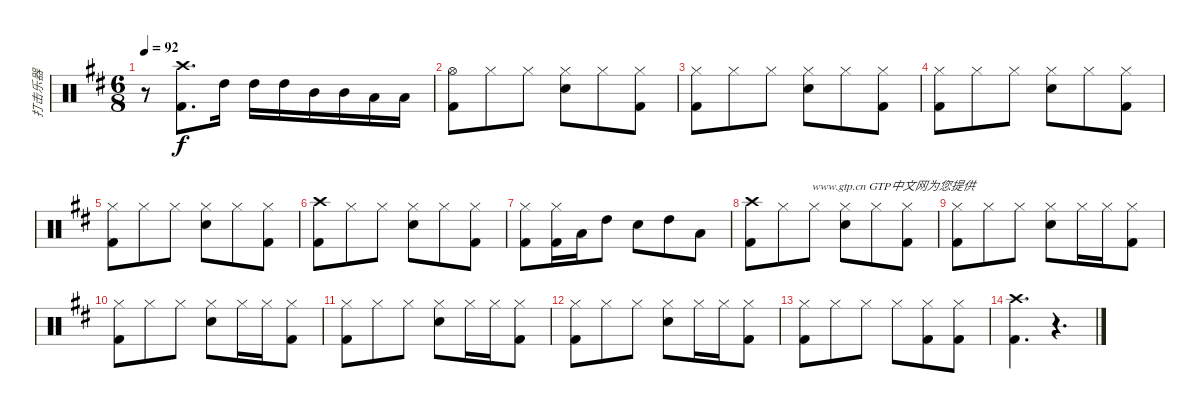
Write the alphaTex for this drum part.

\track ("打击乐器" "打击乐器") {instrument percussion}
\staff {score}
\articulation defaults
\ts (6 8)
\tempo 92
\clef neutral
\ks d
r.8{dy f} ("Crash high (hit)" "Kick (hit) 2").8{d} "High Tom (hit)".16 "High Tom (hit)".16 "High Tom (hit)".16 "Mid Tom (hit)".16 "Mid Tom (hit)".16 "Low Tom (hit)".16 "Low Tom (hit)".16 |
("Hi-Hat (open)" "Kick (hit) 2").8 "Hi-Hat (closed)".8 "Hi-Hat (closed)".8 ("Hi-Hat (closed)" "Snare (hit) 2").8 "Hi-Hat (closed)".8 ("Hi-Hat (closed)" "Kick (hit) 2").8 |
("Hi-Hat (closed)" "Kick (hit) 2").8 "Hi-Hat (closed)".8 "Hi-Hat (closed)".8 ("Hi-Hat (closed)" "Snare (hit) 2").8 "Hi-Hat (closed)".8 ("Hi-Hat (closed)" "Kick (hit) 2").8 |
("Hi-Hat (closed)" "Kick (hit) 2").8 "Hi-Hat (closed)".8 "Hi-Hat (closed)".8 ("Hi-Hat (closed)" "Snare (hit) 2").8 "Hi-Hat (closed)".8 ("Hi-Hat (closed)" "Kick (hit) 2").8 |
("Hi-Hat (closed)" "Kick (hit) 2").8 "Hi-Hat (closed)".8 "Hi-Hat (closed)".8 ("Hi-Hat (closed)" "Snare (hit) 2").8 "Hi-Hat (closed)".8 ("Hi-Hat (closed)" "Kick (hit) 2").8 |
("Crash high (hit)" "Kick (hit) 2").8 "Hi-Hat (closed)".8 "Hi-Hat (closed)".8 ("Hi-Hat (closed)" "Snare (hit) 2").8 "Hi-Hat (closed)".8 ("Hi-Hat (closed)" "Kick (hit) 2").8 |
("Hi-Hat (closed)" "Kick (hit) 2").8 ("Hi-Hat (closed)" "Kick (hit) 2").16 "Low Tom (hit)".16 "High Tom (hit)".8 "Snare (hit) 2".8 "High Tom (hit)".8 "Low Tom (hit)".8 |
("Crash high (hit)" "Kick (hit) 2").8{txt "                    www.gtp.cn GTP中文网为您提供"} "Hi-Hat (closed)".8 "Hi-Hat (closed)".8 ("Hi-Hat (closed)" "Snare (hit) 2").8 "Hi-Hat (closed)".8 ("Hi-Hat (closed)" "Kick (hit) 2").8 |
("Hi-Hat (closed)" "Kick (hit) 2").8 "Hi-Hat (closed)".8 "Hi-Hat (closed)".8 ("Hi-Hat (closed)" "Snare (hit) 2").8 "Hi-Hat (closed)".16 "Hi-Hat (closed)".16 ("Hi-Hat (closed)" "Kick (hit) 2").8 |
("Hi-Hat (closed)" "Kick (hit) 2").8 "Hi-Hat (closed)".8 "Hi-Hat (closed)".8 ("Hi-Hat (closed)" "Snare (hit) 2").8 "Hi-Hat (closed)".16 "Hi-Hat (closed)".16 ("Hi-Hat (closed)" "Kick (hit) 2").8 |
("Hi-Hat (closed)" "Kick (hit) 2").8 "Hi-Hat (closed)".8 "Hi-Hat (closed)".8 ("Hi-Hat (closed)" "Snare (hit) 2").8 "Hi-Hat (closed)".16 "Hi-Hat (closed)".16 ("Hi-Hat (closed)" "Kick (hit) 2").8 |
("Hi-Hat (closed)" "Kick (hit) 2").8 "Hi-Hat (closed)".8 "Hi-Hat (closed)".8 ("Hi-Hat (closed)" "Snare (hit) 2").8 "Hi-Hat (closed)".16 "Hi-Hat (closed)".16 ("Hi-Hat (closed)" "Kick (hit) 2").8 |
("Hi-Hat (closed)" "Kick (hit) 2").8 "Hi-Hat (closed)".8 "Hi-Hat (closed)".8 "Hi-Hat (closed)".8 ("Hi-Hat (closed)" "Kick (hit) 2").8 ("Hi-Hat (closed)" "Kick (hit) 2").8 |
("Crash high (hit)" "Kick (hit) 2").4{d} r.4{d}
